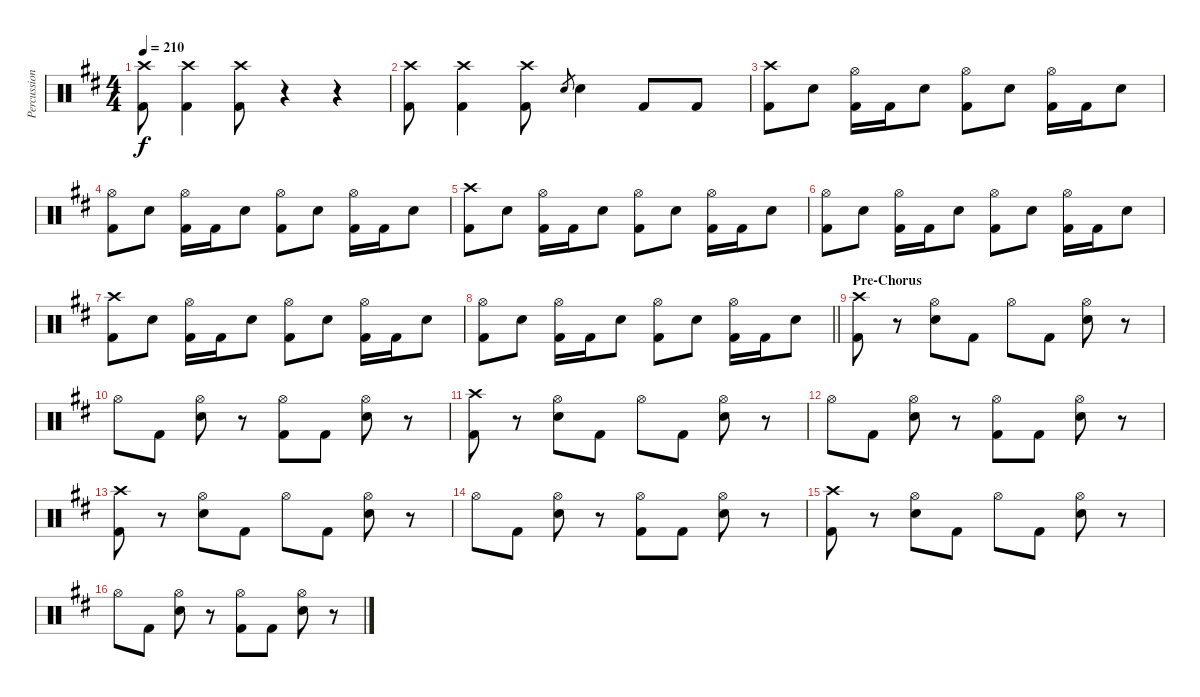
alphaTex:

\track ("Percussion" "Percussion") {instrument percussion}
\staff {score}
\articulation defaults
\ts (4 4)
\tempo 210
\clef neutral
\ks d
("Crash high (hit)" "Kick (hit) 2").8{dy f} ("Crash high (hit)" "Kick (hit) 2").4 ("Crash high (hit)" "Kick (hit) 2").8 r.4 r.4 |
("Crash high (hit)" "Kick (hit) 2").8 ("Crash high (hit)" "Kick (hit) 2").4 ("Crash high (hit)" "Kick (hit) 2").8 "Electric Snare (hit)"{h}.8{gr} "Electric Snare (hit)".4 "Kick (hit) 2".8 "Kick (hit) 2".8 |
("Crash high (hit)" "Kick (hit) 2").8 "Electric Snare (hit)".8 ("Hi-Hat (open)" "Kick (hit) 2").16 "Kick (hit) 2".16 "Electric Snare (hit)".8 ("Hi-Hat (open)" "Kick (hit) 2").8 "Electric Snare (hit)".8 ("Hi-Hat (open)" "Kick (hit) 2").16 "Kick (hit) 2".16 "Electric Snare (hit)".8 |
("Hi-Hat (open)" "Kick (hit) 2").8 "Electric Snare (hit)".8 ("Hi-Hat (open)" "Kick (hit) 2").16 "Kick (hit) 2".16 "Electric Snare (hit)".8 ("Hi-Hat (open)" "Kick (hit) 2").8 "Electric Snare (hit)".8 ("Hi-Hat (open)" "Kick (hit) 2").16 "Kick (hit) 2".16 "Electric Snare (hit)".8 |
("Crash high (hit)" "Kick (hit) 2").8 "Electric Snare (hit)".8 ("Hi-Hat (open)" "Kick (hit) 2").16 "Kick (hit) 2".16 "Electric Snare (hit)".8 ("Hi-Hat (open)" "Kick (hit) 2").8 "Electric Snare (hit)".8 ("Hi-Hat (open)" "Kick (hit) 2").16 "Kick (hit) 2".16 "Electric Snare (hit)".8 |
("Hi-Hat (open)" "Kick (hit) 2").8 "Electric Snare (hit)".8 ("Hi-Hat (open)" "Kick (hit) 2").16 "Kick (hit) 2".16 "Electric Snare (hit)".8 ("Hi-Hat (open)" "Kick (hit) 2").8 "Electric Snare (hit)".8 ("Hi-Hat (open)" "Kick (hit) 2").16 "Kick (hit) 2".16 "Electric Snare (hit)".8 |
("Crash high (hit)" "Kick (hit) 2").8 "Electric Snare (hit)".8 ("Hi-Hat (open)" "Kick (hit) 2").16 "Kick (hit) 2".16 "Electric Snare (hit)".8 ("Hi-Hat (open)" "Kick (hit) 2").8 "Electric Snare (hit)".8 ("Hi-Hat (open)" "Kick (hit) 2").16 "Kick (hit) 2".16 "Electric Snare (hit)".8 |
\barLineRight lightlight
("Hi-Hat (open)" "Kick (hit) 2").8 "Electric Snare (hit)".8 ("Hi-Hat (open)" "Kick (hit) 2").16 "Kick (hit) 2".16 "Electric Snare (hit)".8 ("Hi-Hat (open)" "Kick (hit) 2").8 "Electric Snare (hit)".8 ("Hi-Hat (open)" "Kick (hit) 2").16 "Kick (hit) 2".16 "Electric Snare (hit)".8 |
\section ("" "Pre-Chorus")
("Crash high (hit)" "Kick (hit) 2").8 r.8 ("Hi-Hat (open)" "Electric Snare (hit)").8 "Kick (hit) 2".8 "Hi-Hat (open)".8 "Kick (hit) 2".8 ("Hi-Hat (open)" "Electric Snare (hit)").8 r.8 |
"Hi-Hat (open)".8 "Kick (hit) 2".8 ("Hi-Hat (open)" "Electric Snare (hit)").8 r.8 ("Hi-Hat (open)" "Kick (hit) 2").8 "Kick (hit) 2".8 ("Hi-Hat (open)" "Electric Snare (hit)").8 r.8 |
("Crash high (hit)" "Kick (hit) 2").8 r.8 ("Hi-Hat (open)" "Electric Snare (hit)").8 "Kick (hit) 2".8 "Hi-Hat (open)".8 "Kick (hit) 2".8 ("Hi-Hat (open)" "Electric Snare (hit)").8 r.8 |
"Hi-Hat (open)".8 "Kick (hit) 2".8 ("Hi-Hat (open)" "Electric Snare (hit)").8 r.8 ("Hi-Hat (open)" "Kick (hit) 2").8 "Kick (hit) 2".8 ("Hi-Hat (open)" "Electric Snare (hit)").8 r.8 |
("Crash high (hit)" "Kick (hit) 2").8 r.8 ("Hi-Hat (open)" "Electric Snare (hit)").8 "Kick (hit) 2".8 "Hi-Hat (open)".8 "Kick (hit) 2".8 ("Hi-Hat (open)" "Electric Snare (hit)").8 r.8 |
"Hi-Hat (open)".8 "Kick (hit) 2".8 ("Hi-Hat (open)" "Electric Snare (hit)").8 r.8 ("Hi-Hat (open)" "Kick (hit) 2").8 "Kick (hit) 2".8 ("Hi-Hat (open)" "Electric Snare (hit)").8 r.8 |
("Crash high (hit)" "Kick (hit) 2").8 r.8 ("Hi-Hat (open)" "Electric Snare (hit)").8 "Kick (hit) 2".8 "Hi-Hat (open)".8 "Kick (hit) 2".8 ("Hi-Hat (open)" "Electric Snare (hit)").8 r.8 |
"Hi-Hat (open)".8 "Kick (hit) 2".8 ("Hi-Hat (open)" "Electric Snare (hit)").8 r.8 ("Hi-Hat (open)" "Kick (hit) 2").8 "Kick (hit) 2".8 ("Hi-Hat (open)" "Electric Snare (hit)").8 r.8
